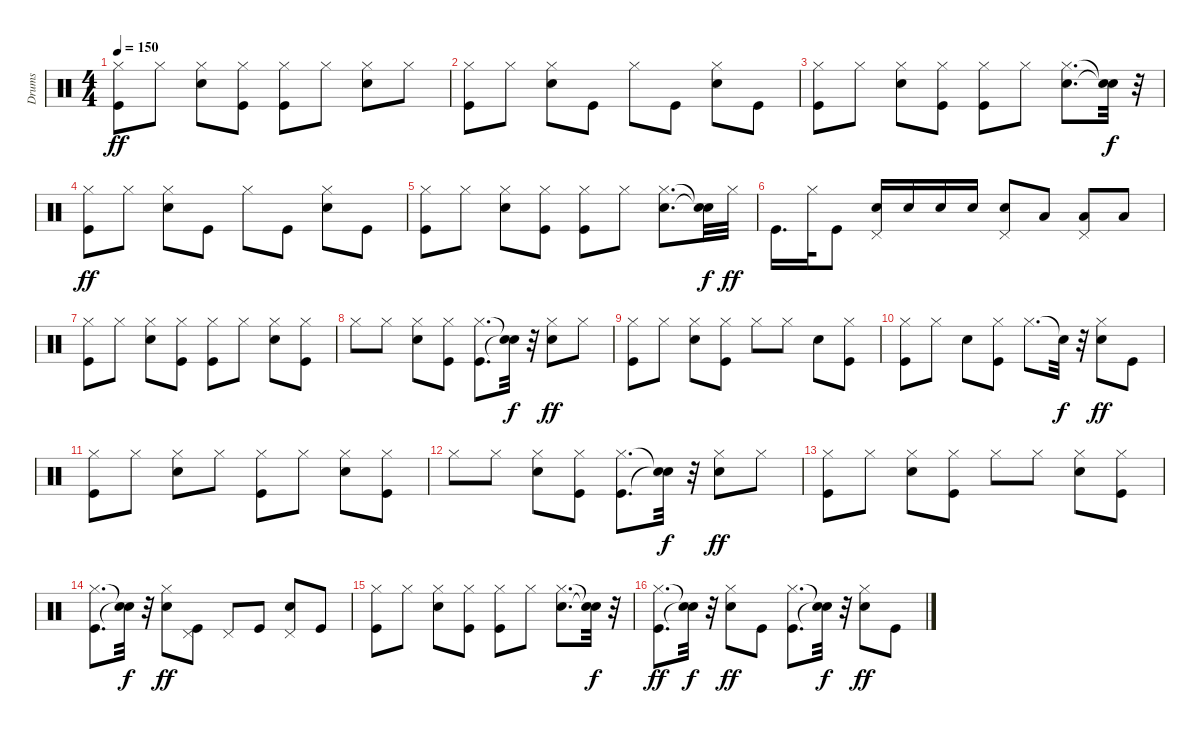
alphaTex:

\track ("Drums" "Drums") {instrument percussion}
\staff {score}
\articulation defaults
\ts (4 4)
\tempo 150
\clef neutral
\ks c
("Kick (hit)" "Hi-Hat (closed)").8{dy ff} "Hi-Hat (closed)".8 ("Snare (hit) 2" "Hi-Hat (closed)").8 ("Kick (hit)" "Hi-Hat (closed)").8 ("Kick (hit)" "Hi-Hat (closed)").8 "Hi-Hat (closed)".8 ("Snare (hit) 2" "Hi-Hat (closed)").8 "Hi-Hat (closed)".8 |
("Kick (hit)" "Hi-Hat (closed)").8 "Hi-Hat (closed)".8 ("Snare (hit) 2" "Hi-Hat (closed)").8 "Kick (hit)".8 "Hi-Hat (closed)".8 "Kick (hit)".8 ("Snare (hit) 2" "Hi-Hat (closed)").8 "Kick (hit)".8 |
("Kick (hit)" "Hi-Hat (closed)").8 "Hi-Hat (closed)".8 ("Snare (hit) 2" "Hi-Hat (closed)").8 ("Kick (hit)" "Hi-Hat (closed)").8 ("Kick (hit)" "Hi-Hat (closed)").8 "Hi-Hat (closed)".8 ("Snare (hit) 2" "Hi-Hat (closed)").8{d} ("Snare (hit)"{t} "Snare (hit)"{t}).32{dy f} r.32 |
("Kick (hit)" "Hi-Hat (closed)").8{dy ff} "Hi-Hat (closed)".8 ("Snare (hit) 2" "Hi-Hat (closed)").8 "Kick (hit)".8 "Hi-Hat (closed)".8 "Kick (hit)".8 ("Snare (hit) 2" "Hi-Hat (closed)").8 "Kick (hit)".8 |
("Kick (hit)" "Hi-Hat (closed)").8 "Hi-Hat (closed)".8 ("Snare (hit) 2" "Hi-Hat (closed)").8 ("Kick (hit)" "Hi-Hat (closed)").8 ("Kick (hit)" "Hi-Hat (closed)").8 "Hi-Hat (closed)".8 ("Snare (hit) 2" "Hi-Hat (closed)").8{d} ("Snare (hit)"{t} "Snare (hit)"{t}).32{dy f} "Hi-Hat (closed)".32{dy ff} |
"Kick (hit)".16{d} "Hi-Hat (closed)".32 "Kick (hit)".8 ("Snare (hit) 2" "Pedal Hi-Hat (hit)").16 "Snare (hit) 2".16 "Snare (hit) 2".16 "Snare (hit) 2".16 ("Snare (hit) 2" "Pedal Hi-Hat (hit)").8 "Low Tom (hit)".8 ("Low Floor Tom (hit)" "Pedal Hi-Hat (hit)").8 "Low Floor Tom (hit)".8 |
("Kick (hit)" "Hi-Hat (closed)").8 "Hi-Hat (closed)".8 ("Snare (hit) 2" "Hi-Hat (closed)").8 ("Kick (hit)" "Hi-Hat (closed)").8 ("Kick (hit)" "Hi-Hat (closed)").8 "Hi-Hat (closed)".8 ("Snare (hit) 2" "Hi-Hat (closed)").8 ("Kick (hit)" "Hi-Hat (closed)").8 |
"Hi-Hat (closed)".8 "Hi-Hat (closed)".8 ("Snare (hit) 2" "Hi-Hat (closed)").8 ("Kick (hit)" "Hi-Hat (closed)").8 ("Kick (hit)" "Hi-Hat (closed)").8{d} ("Snare (hit)"{t} "Snare (hit)"{t}).32{dy f} r.32 ("Snare (hit) 2" "Hi-Hat (closed)").8{dy ff} "Hi-Hat (closed)".8 |
("Kick (hit)" "Hi-Hat (closed)").8 "Hi-Hat (closed)".8 ("Snare (hit) 2" "Hi-Hat (closed)").8 ("Kick (hit)" "Hi-Hat (closed)").8 "Hi-Hat (closed)".8 "Hi-Hat (closed)".8 "Snare (hit) 2".8 ("Kick (hit)" "Hi-Hat (closed)").8 |
("Kick (hit)" "Hi-Hat (closed)").8 "Hi-Hat (closed)".8 "Snare (hit) 2".8 ("Kick (hit)" "Hi-Hat (closed)").8 "Hi-Hat (closed)".8{d} "Snare (hit)"{t}.32{dy f} r.32 ("Snare (hit) 2" "Hi-Hat (closed)").8{dy ff} "Kick (hit)".8 |
("Kick (hit)" "Hi-Hat (closed)").8 "Hi-Hat (closed)".8 ("Snare (hit) 2" "Hi-Hat (closed)").8 "Hi-Hat (closed)".8 ("Kick (hit)" "Hi-Hat (closed)").8 "Hi-Hat (closed)".8 ("Snare (hit) 2" "Hi-Hat (closed)").8 ("Kick (hit)" "Hi-Hat (closed)").8 |
"Hi-Hat (closed)".8 "Hi-Hat (closed)".8 ("Snare (hit) 2" "Hi-Hat (closed)").8 ("Kick (hit)" "Hi-Hat (closed)").8 ("Kick (hit)" "Hi-Hat (closed)").8{d} ("Snare (hit)"{t} "Snare (hit)"{t}).32{dy f} r.32 ("Snare (hit) 2" "Hi-Hat (closed)").8{dy ff} "Hi-Hat (closed)".8 |
("Kick (hit)" "Hi-Hat (closed)").8 "Hi-Hat (closed)".8 ("Snare (hit) 2" "Hi-Hat (closed)").8 ("Kick (hit)" "Hi-Hat (closed)").8 "Hi-Hat (closed)".8 "Hi-Hat (closed)".8 ("Snare (hit) 2" "Hi-Hat (closed)").8 ("Kick (hit)" "Hi-Hat (closed)").8 |
("Kick (hit)" "Hi-Hat (closed)").8{d} ("Snare (hit)"{t} "Snare (hit)"{t}).32{dy f} r.32 ("Snare (hit) 2" "Hi-Hat (closed)").8{dy ff} ("Kick (hit)" "Pedal Hi-Hat (hit)").8 "Pedal Hi-Hat (hit)".8 "Kick (hit)".8 ("Snare (hit) 2" "Pedal Hi-Hat (hit)").8 "Kick (hit)".8 |
("Kick (hit)" "Hi-Hat (closed)").8 "Hi-Hat (closed)".8 ("Snare (hit) 2" "Hi-Hat (closed)").8 ("Kick (hit)" "Hi-Hat (closed)").8 ("Kick (hit)" "Hi-Hat (closed)").8 "Hi-Hat (closed)".8 ("Snare (hit) 2" "Hi-Hat (closed)").8{d} ("Snare (hit)"{t} "Snare (hit)"{t}).32{dy f} r.32 |
("Kick (hit)" "Hi-Hat (closed)").8{d dy ff} ("Snare (hit)"{t} "Snare (hit)"{t}).32{dy f} r.32 ("Snare (hit) 2" "Hi-Hat (closed)").8{dy ff} "Kick (hit)".8 ("Kick (hit)" "Hi-Hat (closed)").8{d} ("Snare (hit)"{t} "Snare (hit)"{t}).32{dy f} r.32 ("Snare (hit) 2" "Hi-Hat (closed)").8{dy ff} "Kick (hit)".8
